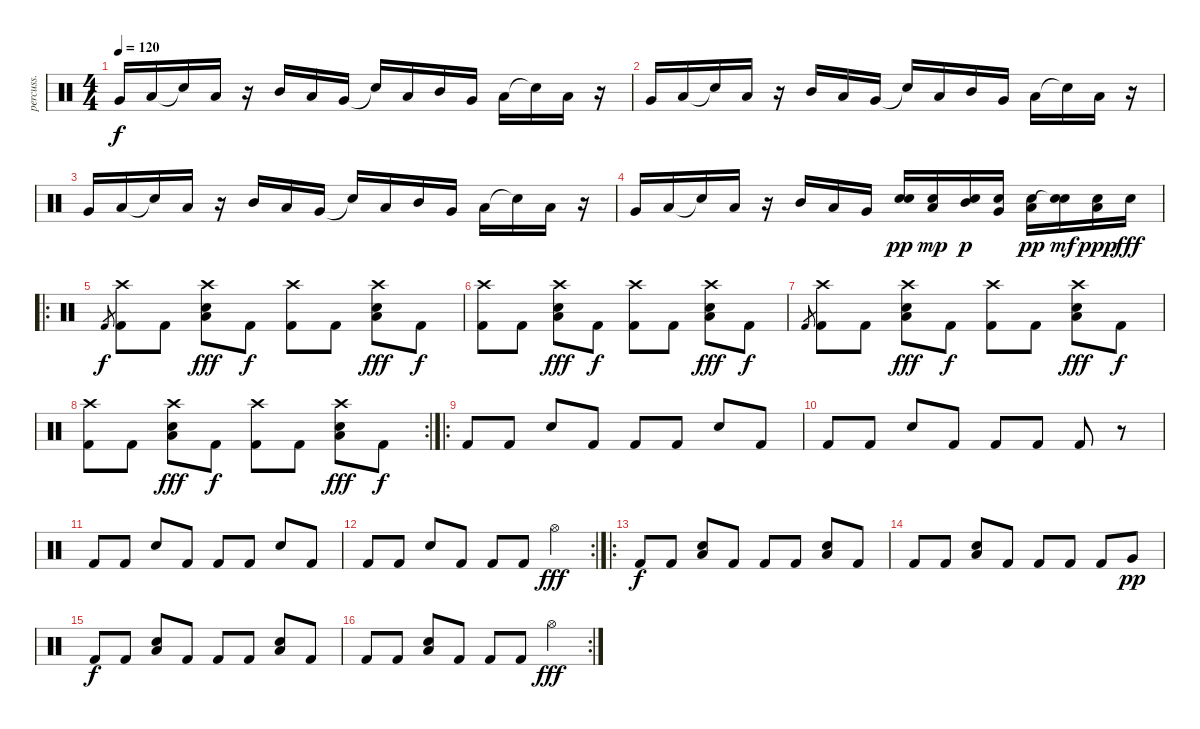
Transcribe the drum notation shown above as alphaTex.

\track ("percuss." "percuss.") {instrument percussion}
\staff {score}
\articulation defaults
\ts (4 4)
\tempo 120
\clef neutral
\ks c "Very Low Tom (hit)".16{dy f} "Low Tom (hit)".16 "Snare (hit)"{t}.16 "Low Floor Tom (hit)".16
r.16 "Mid Tom (hit)".16 "Low Tom (hit)".16 "Very Low Tom (hit)".16 "Snare (hit)"{t}.16 "Low Floor Tom (hit)".16 "Mid Tom (hit)".16 "Very Low Tom (hit)".16 "Low Tom (hit)".16 "Snare (hit)"{t}.16 "Low Floor Tom (hit)".16 r.16 |
"Very Low Tom (hit)".16 "Low Tom (hit)".16 "Snare (hit)"{t}.16 "Low Floor Tom (hit)".16 r.16 "Mid Tom (hit)".16 "Low Tom (hit)".16 "Very Low Tom (hit)".16 "Snare (hit)"{t}.16 "Low Floor Tom (hit)".16 "Mid Tom (hit)".16 "Very Low Tom (hit)".16 "Low Tom (hit)".16 "Snare (hit)"{t}.16 "Low Floor Tom (hit)".16 r.16 |
"Very Low Tom (hit)".16 "Low Tom (hit)".16 "Snare (hit)"{t}.16 "Low Floor Tom (hit)".16 r.16 "Mid Tom (hit)".16 "Low Tom (hit)".16 "Very Low Tom (hit)".16 "Snare (hit)"{t}.16 "Low Floor Tom (hit)".16 "Mid Tom (hit)".16 "Very Low Tom (hit)".16 "Low Tom (hit)".16 "Snare (hit)"{t}.16 "Low Floor Tom (hit)".16 r.16 |
"Very Low Tom (hit)".16 "Low Tom (hit)".16 "Snare (hit)"{t}.16 "Low Floor Tom (hit)".16 r.16 "Mid Tom (hit)".16 "Low Tom (hit)".16 "Very Low Tom (hit)".16 ("Electric Snare (hit)" "Snare (hit)").16{dy pp} ("Electric Snare (hit)" "Low Floor Tom (hit)").16{dy mp} ("Electric Snare (hit)" "Mid Tom (hit)").16{dy p} ("Electric Snare (hit)" "Very Low Tom (hit)").16 ("Electric Snare (hit)" "Low Tom (hit)").16{dy pp} ("Electric Snare (hit)" "Snare (hit)"{t}).16{dy mf} ("Electric Snare (hit)" "Low Floor Tom (hit)").16{dy ppp} "Electric Snare (hit)".16{dy fff} |
\ro "Kick (hit) 2".8{gr dy f}
("Crash high (hit)" "Kick (hit) 2").8 "Kick (hit) 2".8 ("Crash high (hit)" "Low Floor Tom (hit)" "Electric Snare (hit)").8{dy fff} "Kick (hit) 2".8{dy f} ("Crash high (hit)" "Kick (hit) 2").8 "Kick (hit) 2".8 ("Crash high (hit)" "Low Floor Tom (hit)" "Electric Snare (hit)").8{dy fff} "Kick (hit) 2".8{dy f} |
("Crash high (hit)" "Kick (hit) 2").8 "Kick (hit) 2".8 ("Crash high (hit)" "Low Floor Tom (hit)" "Electric Snare (hit)").8{dy fff} "Kick (hit) 2".8{dy f} ("Crash high (hit)" "Kick (hit) 2").8 "Kick (hit) 2".8 ("Crash high (hit)" "Low Floor Tom (hit)" "Electric Snare (hit)").8{dy fff} "Kick (hit) 2".8{dy f} |
"Kick (hit) 2".8{gr} ("Crash high (hit)" "Kick (hit) 2").8 "Kick (hit) 2".8 ("Crash high (hit)" "Low Floor Tom (hit)" "Electric Snare (hit)").8{dy fff} "Kick (hit) 2".8{dy f} ("Crash high (hit)" "Kick (hit) 2").8 "Kick (hit) 2".8 ("Crash high (hit)" "Low Floor Tom (hit)" "Electric Snare (hit)").8{dy fff} "Kick (hit) 2".8{dy f} |
\rc 2
("Crash high (hit)" "Kick (hit) 2").8 "Kick (hit) 2".8 ("Crash high (hit)" "Low Floor Tom (hit)" "Electric Snare (hit)").8{dy fff} "Kick (hit) 2".8{dy f} ("Crash high (hit)" "Kick (hit) 2").8 "Kick (hit) 2".8 ("Crash high (hit)" "Low Floor Tom (hit)" "Electric Snare (hit)").8{dy fff} "Kick (hit) 2".8{dy f} |
\ro "Kick (hit) 2".8 "Kick (hit) 2".8 "Electric Snare (hit)".8 "Kick (hit) 2".8 "Kick (hit) 2".8 "Kick (hit) 2".8 "Electric Snare (hit)".8 "Kick (hit) 2".8
|
"Kick (hit) 2".8 "Kick (hit) 2".8 "Electric Snare (hit)".8 "Kick (hit) 2".8 "Kick (hit) 2".8 "Kick (hit) 2".8 "Kick (hit) 2".8 r.8 |
"Kick (hit) 2".8 "Kick (hit) 2".8 "Electric Snare (hit)".8 "Kick (hit) 2".8 "Kick (hit) 2".8 "Kick (hit) 2".8 "Electric Snare (hit)".8 "Kick (hit) 2".8 |
\rc 2 "Kick (hit) 2".8 "Kick (hit) 2".8 "Electric Snare (hit)".8 "Kick (hit) 2".8 "Kick (hit) 2".8 "Kick (hit) 2".8 "Hi-Hat (open)".4{dy fff}
|
\ro "Kick (hit) 2".8{dy f} "Kick (hit) 2".8
("Low Floor Tom (hit)" "Electric Snare (hit)").8 "Kick (hit) 2".8 "Kick (hit) 2".8 "Kick (hit) 2".8 ("Low Floor Tom (hit)" "Electric Snare (hit)").8 "Kick (hit) 2".8 |
"Kick (hit) 2".8 "Kick (hit) 2".8 ("Low Floor Tom (hit)" "Electric Snare (hit)").8 "Kick (hit) 2".8 "Kick (hit) 2".8 "Kick (hit) 2".8 "Kick (hit) 2".8 "Very Low Tom (hit)".8{dy pp} |
"Kick (hit) 2".8{dy f} "Kick (hit) 2".8 ("Low Floor Tom (hit)" "Electric Snare (hit)").8 "Kick (hit) 2".8 "Kick (hit) 2".8 "Kick (hit) 2".8 ("Low Floor Tom (hit)" "Electric Snare (hit)").8 "Kick (hit) 2".8 |
\rc 2 "Kick (hit) 2".8 "Kick (hit) 2".8
("Low Floor Tom (hit)" "Electric Snare (hit)").8 "Kick (hit) 2".8 "Kick (hit) 2".8 "Kick (hit) 2".8 "Hi-Hat (open)".4{dy fff}
